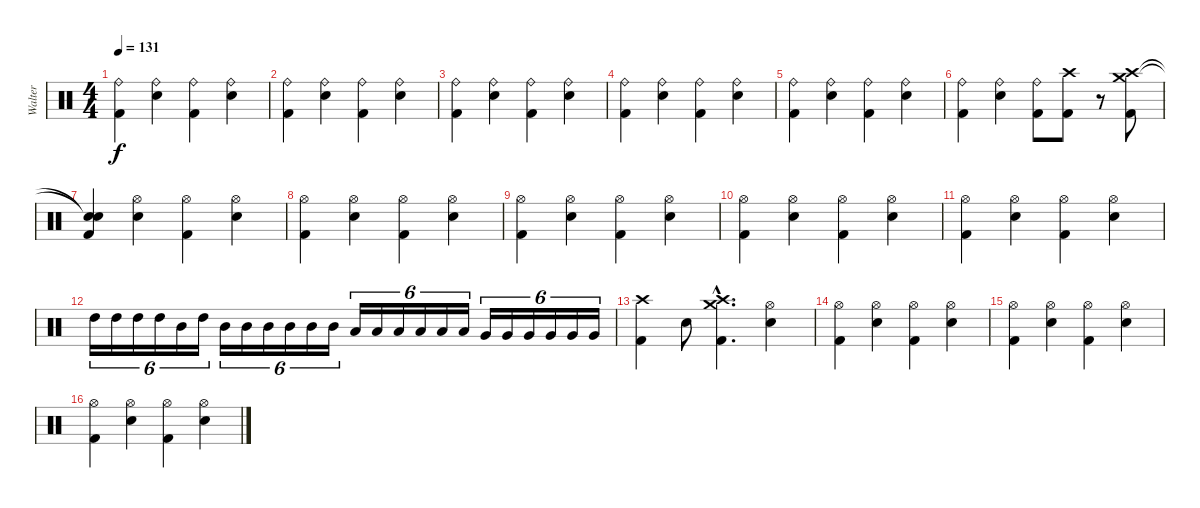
\track ("Walter" "Walter") {instrument percussion}
\staff {score}
\articulation defaults
\ts (4 4)
\tempo 131
\clef neutral
\ks c
("Ride (bell)" "Kick (hit) 2").4{dy f} ("Ride (bell)" "Electric Snare (hit)").4 ("Ride (bell)" "Kick (hit) 2").4 ("Ride (bell)" "Electric Snare (hit)").4 |
("Ride (bell)" "Kick (hit) 2").4 ("Ride (bell)" "Electric Snare (hit)").4 ("Ride (bell)" "Kick (hit) 2").4 ("Ride (bell)" "Electric Snare (hit)").4 |
("Ride (bell)" "Kick (hit) 2").4 ("Ride (bell)" "Electric Snare (hit)").4 ("Ride (bell)" "Kick (hit) 2").4 ("Ride (bell)" "Electric Snare (hit)").4 |
("Ride (bell)" "Kick (hit) 2").4 ("Ride (bell)" "Electric Snare (hit)").4 ("Ride (bell)" "Kick (hit) 2").4 ("Ride (bell)" "Electric Snare (hit)").4 |
("Ride (bell)" "Kick (hit) 2").4 ("Ride (bell)" "Electric Snare (hit)").4 ("Ride (bell)" "Kick (hit) 2").4 ("Ride (bell)" "Electric Snare (hit)").4 |
("Ride (bell)" "Kick (hit) 2").4 ("Ride (bell)" "Electric Snare (hit)").4 ("Ride (bell)" "Kick (hit) 2").8 ("Kick (hit) 2" "Crash high (hit)").8 r.8 ("Kick (hit) 2" "Crash high (hit)" "Crash medium (hit)").8 |
("Kick (hit) 2" "Snare (hit)"{t} "Snare (hit)"{t}).4 ("Hi-Hat (open)" "Electric Snare (hit)").4 ("Hi-Hat (open)" "Kick (hit) 2").4 ("Hi-Hat (open)" "Electric Snare (hit)").4 |
("Hi-Hat (open)" "Kick (hit) 2").4 ("Hi-Hat (open)" "Electric Snare (hit)").4 ("Hi-Hat (open)" "Kick (hit) 2").4 ("Hi-Hat (open)" "Electric Snare (hit)").4 |
("Hi-Hat (open)" "Kick (hit) 2").4 ("Hi-Hat (open)" "Electric Snare (hit)").4 ("Hi-Hat (open)" "Kick (hit) 2").4 ("Hi-Hat (open)" "Electric Snare (hit)").4 |
("Hi-Hat (open)" "Kick (hit) 2").4 ("Hi-Hat (open)" "Electric Snare (hit)").4 ("Hi-Hat (open)" "Kick (hit) 2").4 ("Hi-Hat (open)" "Electric Snare (hit)").4 |
("Hi-Hat (open)" "Kick (hit) 2").4 ("Hi-Hat (open)" "Electric Snare (hit)").4 ("Hi-Hat (open)" "Kick (hit) 2").4 ("Hi-Hat (open)" "Electric Snare (hit)").4 |
"High Tom (hit)".16{tu (6 4)} "High Tom (hit)".16{tu (6 4)} "High Tom (hit)".16{tu (6 4)} "High Tom (hit)".16{tu (6 4)} "Mid Tom (hit)".16{tu (6 4)} "High Tom (hit)".16{tu (6 4)} "Mid Tom (hit)".16{tu (6 4)} "Mid Tom (hit)".16{tu (6 4)} "Mid Tom (hit)".16{tu (6 4)} "Mid Tom (hit)".16{tu (6 4)} "Mid Tom (hit)".16{tu (6 4)} "Mid Tom (hit)".16{tu (6 4)} "Low Tom (hit)".16{tu (6 4)} "Low Tom (hit)".16{tu (6 4)} "Low Tom (hit)".16{tu (6 4)} "Low Tom (hit)".16{tu (6 4)} "Low Tom (hit)".16{tu (6 4)} "Low Tom (hit)".16{tu (6 4)} "Very Low Tom (hit)".16{tu (6 4)} "Very Low Tom (hit)".16{tu (6 4)} "Very Low Tom (hit)".16{tu (6 4)} "Very Low Tom (hit)".16{tu (6 4)} "Very Low Tom (hit)".16{tu (6 4)} "Very Low Tom (hit)".16{tu (6 4)} |
("Kick (hit) 2" "Crash high (hit)").4 "Electric Snare (hit)".8 ("Kick (hit) 2"{hac} "Crash high (hit)"{hac} "Crash medium (hit)"{hac}).4{d} ("Hi-Hat (open)" "Electric Snare (hit)").4 |
("Hi-Hat (open)" "Kick (hit) 2").4 ("Hi-Hat (open)" "Electric Snare (hit)").4 ("Hi-Hat (open)" "Kick (hit) 2").4 ("Hi-Hat (open)" "Electric Snare (hit)").4 |
("Hi-Hat (open)" "Kick (hit) 2").4 ("Hi-Hat (open)" "Electric Snare (hit)").4 ("Hi-Hat (open)" "Kick (hit) 2").4 ("Hi-Hat (open)" "Electric Snare (hit)").4 |
("Hi-Hat (open)" "Kick (hit) 2").4 ("Hi-Hat (open)" "Electric Snare (hit)").4 ("Hi-Hat (open)" "Kick (hit) 2").4 ("Hi-Hat (open)" "Electric Snare (hit)").4
